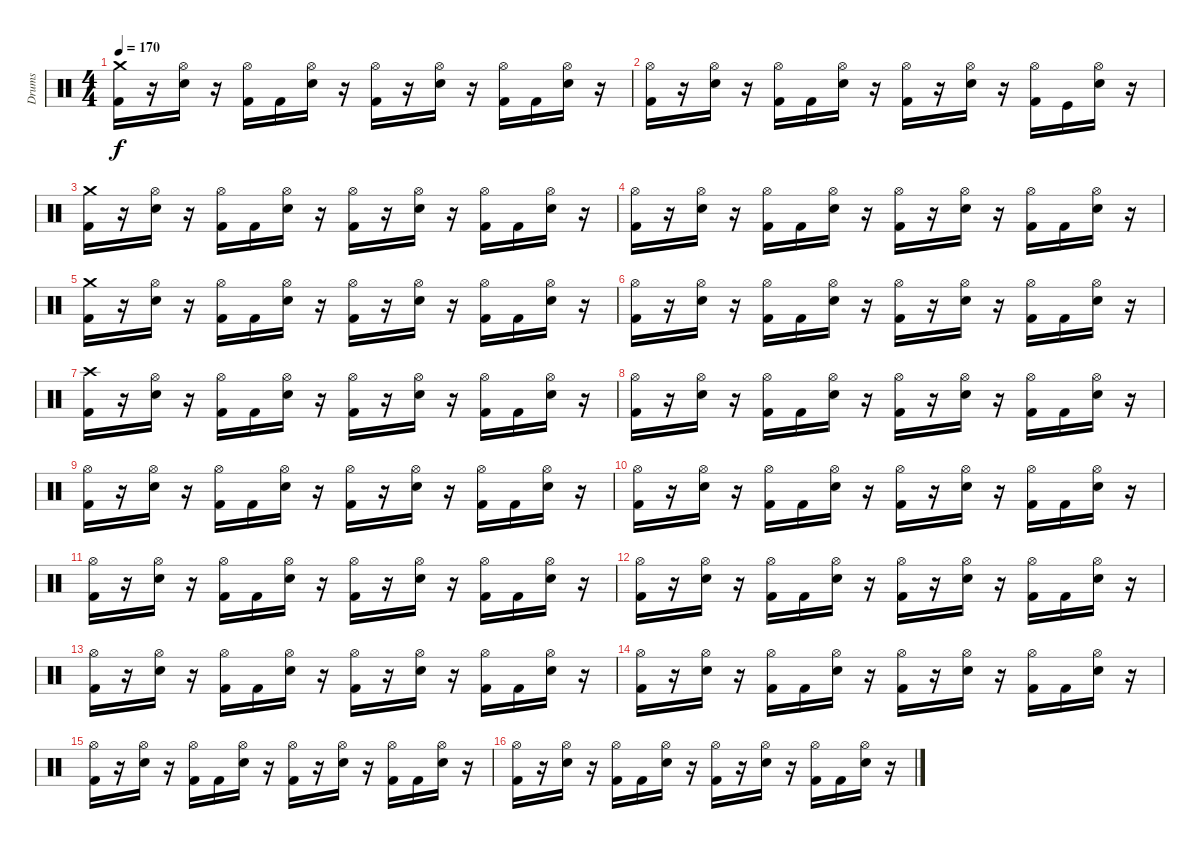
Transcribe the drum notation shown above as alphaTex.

\track ("Drums" "Drums") {instrument percussion}
\staff {score}
\articulation defaults
\ts (4 4)
\tempo 170
\clef neutral
\ks c
("Crash medium (hit)" "Kick (hit) 2").16{dy f} r.16 ("Hi-Hat (open)" "Snare (hit) 2").16 r.16 ("Hi-Hat (open)" "Kick (hit) 2").16 "Kick (hit) 2".16 ("Hi-Hat (open)" "Snare (hit) 2").16 r.16 ("Hi-Hat (open)" "Kick (hit) 2").16 r.16 ("Hi-Hat (open)" "Snare (hit) 2").16 r.16 ("Hi-Hat (open)" "Kick (hit) 2").16 "Kick (hit) 2".16 ("Hi-Hat (open)" "Snare (hit) 2").16 r.16 |
("Hi-Hat (open)" "Kick (hit) 2").16 r.16 ("Hi-Hat (open)" "Snare (hit) 2").16 r.16 ("Hi-Hat (open)" "Kick (hit) 2").16 "Kick (hit) 2".16 ("Hi-Hat (open)" "Snare (hit) 2").16 r.16 ("Hi-Hat (open)" "Kick (hit) 2").16 r.16 ("Hi-Hat (open)" "Snare (hit) 2").16 r.16 ("Hi-Hat (open)" "Kick (hit) 2").16 "Kick (hit)".16 ("Hi-Hat (open)" "Snare (hit) 2").16 r.16 |
("Crash medium (hit)" "Kick (hit) 2").16 r.16 ("Hi-Hat (open)" "Snare (hit) 2").16 r.16 ("Hi-Hat (open)" "Kick (hit) 2").16 "Kick (hit) 2".16 ("Hi-Hat (open)" "Snare (hit) 2").16 r.16 ("Hi-Hat (open)" "Kick (hit) 2").16 r.16 ("Hi-Hat (open)" "Snare (hit) 2").16 r.16 ("Hi-Hat (open)" "Kick (hit) 2").16 "Kick (hit) 2".16 ("Hi-Hat (open)" "Snare (hit) 2").16 r.16 |
("Hi-Hat (open)" "Kick (hit) 2").16 r.16 ("Hi-Hat (open)" "Snare (hit) 2").16 r.16 ("Hi-Hat (open)" "Kick (hit) 2").16 "Kick (hit) 2".16 ("Hi-Hat (open)" "Snare (hit) 2").16 r.16 ("Hi-Hat (open)" "Kick (hit) 2").16 r.16 ("Hi-Hat (open)" "Snare (hit) 2").16 r.16 ("Hi-Hat (open)" "Kick (hit) 2").16 "Kick (hit) 2".16 ("Hi-Hat (open)" "Snare (hit) 2").16 r.16 |
("Crash medium (hit)" "Kick (hit) 2").16 r.16 ("Hi-Hat (open)" "Snare (hit) 2").16 r.16 ("Hi-Hat (open)" "Kick (hit) 2").16 "Kick (hit) 2".16 ("Hi-Hat (open)" "Snare (hit) 2").16 r.16 ("Hi-Hat (open)" "Kick (hit) 2").16 r.16 ("Hi-Hat (open)" "Snare (hit) 2").16 r.16 ("Hi-Hat (open)" "Kick (hit) 2").16 "Kick (hit) 2".16 ("Hi-Hat (open)" "Snare (hit) 2").16 r.16 |
("Hi-Hat (open)" "Kick (hit) 2").16 r.16 ("Hi-Hat (open)" "Snare (hit) 2").16 r.16 ("Hi-Hat (open)" "Kick (hit) 2").16 "Kick (hit) 2".16 ("Hi-Hat (open)" "Snare (hit) 2").16 r.16 ("Hi-Hat (open)" "Kick (hit) 2").16 r.16 ("Hi-Hat (open)" "Snare (hit) 2").16 r.16 ("Hi-Hat (open)" "Kick (hit) 2").16 "Kick (hit) 2".16 ("Hi-Hat (open)" "Snare (hit) 2").16 r.16 |
("Crash high (hit)" "Kick (hit) 2").16 r.16 ("Hi-Hat (open)" "Snare (hit) 2").16 r.16 ("Hi-Hat (open)" "Kick (hit) 2").16 "Kick (hit) 2".16 ("Hi-Hat (open)" "Snare (hit) 2").16 r.16 ("Hi-Hat (open)" "Kick (hit) 2").16 r.16 ("Hi-Hat (open)" "Snare (hit) 2").16 r.16 ("Hi-Hat (open)" "Kick (hit) 2").16 "Kick (hit) 2".16 ("Hi-Hat (open)" "Snare (hit) 2").16 r.16 |
("Hi-Hat (open)" "Kick (hit) 2").16 r.16 ("Hi-Hat (open)" "Snare (hit) 2").16 r.16 ("Hi-Hat (open)" "Kick (hit) 2").16 "Kick (hit) 2".16 ("Hi-Hat (open)" "Snare (hit) 2").16 r.16 ("Hi-Hat (open)" "Kick (hit) 2").16 r.16 ("Hi-Hat (open)" "Snare (hit) 2").16 r.16 ("Hi-Hat (open)" "Kick (hit) 2").16 "Kick (hit) 2".16 ("Hi-Hat (open)" "Snare (hit) 2").16 r.16 |
("Hi-Hat (open)" "Kick (hit) 2").16 r.16 ("Hi-Hat (open)" "Snare (hit) 2").16 r.16 ("Hi-Hat (open)" "Kick (hit) 2").16 "Kick (hit) 2".16 ("Hi-Hat (open)" "Snare (hit) 2").16 r.16 ("Hi-Hat (open)" "Kick (hit) 2").16 r.16 ("Hi-Hat (open)" "Snare (hit) 2").16 r.16 ("Hi-Hat (open)" "Kick (hit) 2").16 "Kick (hit) 2".16 ("Hi-Hat (open)" "Snare (hit) 2").16 r.16 |
("Hi-Hat (open)" "Kick (hit) 2").16 r.16 ("Hi-Hat (open)" "Snare (hit) 2").16 r.16 ("Hi-Hat (open)" "Kick (hit) 2").16 "Kick (hit) 2".16 ("Hi-Hat (open)" "Snare (hit) 2").16 r.16 ("Hi-Hat (open)" "Kick (hit) 2").16 r.16 ("Hi-Hat (open)" "Snare (hit) 2").16 r.16 ("Hi-Hat (open)" "Kick (hit) 2").16 "Kick (hit) 2".16 ("Hi-Hat (open)" "Snare (hit) 2").16 r.16 |
("Hi-Hat (open)" "Kick (hit) 2").16 r.16 ("Hi-Hat (open)" "Snare (hit) 2").16 r.16 ("Hi-Hat (open)" "Kick (hit) 2").16 "Kick (hit) 2".16 ("Hi-Hat (open)" "Snare (hit) 2").16 r.16 ("Hi-Hat (open)" "Kick (hit) 2").16 r.16 ("Hi-Hat (open)" "Snare (hit) 2").16 r.16 ("Hi-Hat (open)" "Kick (hit) 2").16 "Kick (hit) 2".16 ("Hi-Hat (open)" "Snare (hit) 2").16 r.16 |
("Hi-Hat (open)" "Kick (hit) 2").16 r.16 ("Hi-Hat (open)" "Snare (hit) 2").16 r.16 ("Hi-Hat (open)" "Kick (hit) 2").16 "Kick (hit) 2".16 ("Hi-Hat (open)" "Snare (hit) 2").16 r.16 ("Hi-Hat (open)" "Kick (hit) 2").16 r.16 ("Hi-Hat (open)" "Snare (hit) 2").16 r.16 ("Hi-Hat (open)" "Kick (hit) 2").16 "Kick (hit) 2".16 ("Hi-Hat (open)" "Snare (hit) 2").16 r.16 |
("Hi-Hat (open)" "Kick (hit) 2").16 r.16 ("Hi-Hat (open)" "Snare (hit) 2").16 r.16 ("Hi-Hat (open)" "Kick (hit) 2").16 "Kick (hit) 2".16 ("Hi-Hat (open)" "Snare (hit) 2").16 r.16 ("Hi-Hat (open)" "Kick (hit) 2").16 r.16 ("Hi-Hat (open)" "Snare (hit) 2").16 r.16 ("Hi-Hat (open)" "Kick (hit) 2").16 "Kick (hit) 2".16 ("Hi-Hat (open)" "Snare (hit) 2").16 r.16 |
("Hi-Hat (open)" "Kick (hit) 2").16 r.16 ("Hi-Hat (open)" "Snare (hit) 2").16 r.16 ("Hi-Hat (open)" "Kick (hit) 2").16 "Kick (hit) 2".16 ("Hi-Hat (open)" "Snare (hit) 2").16 r.16 ("Hi-Hat (open)" "Kick (hit) 2").16 r.16 ("Hi-Hat (open)" "Snare (hit) 2").16 r.16 ("Hi-Hat (open)" "Kick (hit) 2").16 "Kick (hit) 2".16 ("Hi-Hat (open)" "Snare (hit) 2").16 r.16 |
("Hi-Hat (open)" "Kick (hit) 2").16 r.16 ("Hi-Hat (open)" "Snare (hit) 2").16 r.16 ("Hi-Hat (open)" "Kick (hit) 2").16 "Kick (hit) 2".16 ("Hi-Hat (open)" "Snare (hit) 2").16 r.16 ("Hi-Hat (open)" "Kick (hit) 2").16 r.16 ("Hi-Hat (open)" "Snare (hit) 2").16 r.16 ("Hi-Hat (open)" "Kick (hit) 2").16 "Kick (hit) 2".16 ("Hi-Hat (open)" "Snare (hit) 2").16 r.16 |
("Hi-Hat (open)" "Kick (hit) 2").16 r.16 ("Hi-Hat (open)" "Snare (hit) 2").16 r.16 ("Hi-Hat (open)" "Kick (hit) 2").16 "Kick (hit) 2".16 ("Hi-Hat (open)" "Snare (hit) 2").16 r.16 ("Hi-Hat (open)" "Kick (hit) 2").16 r.16 ("Hi-Hat (open)" "Snare (hit) 2").16 r.16 ("Hi-Hat (open)" "Kick (hit) 2").16 "Kick (hit) 2".16 ("Hi-Hat (open)" "Snare (hit) 2").16 r.16
